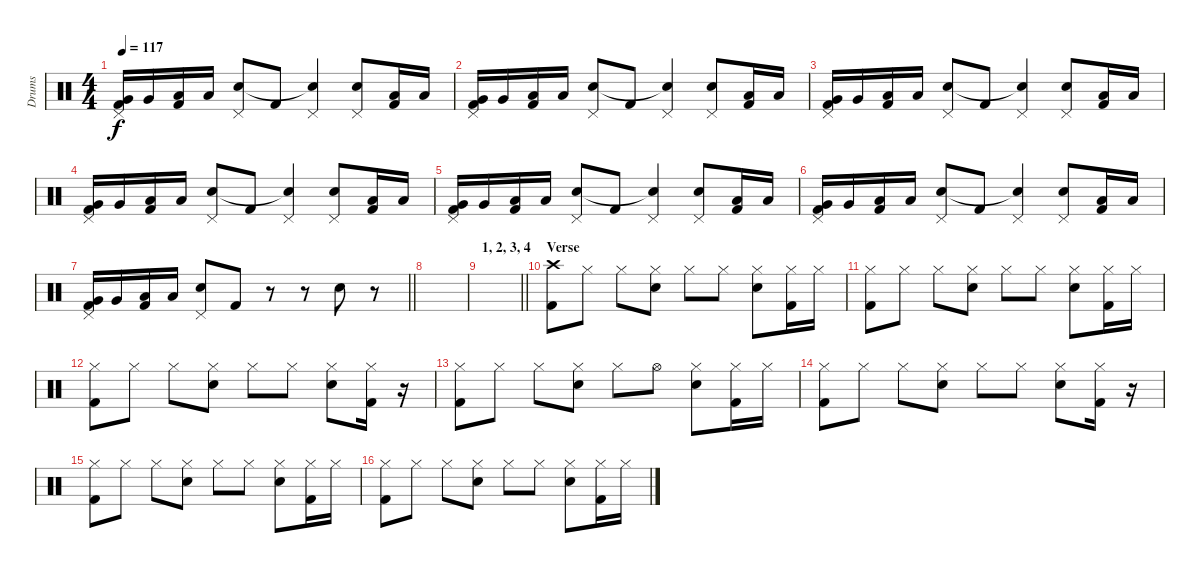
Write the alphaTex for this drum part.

\track ("Drums" "Drums") {instrument percussion}
\staff {score}
\articulation defaults
\ts (4 4)
\tempo 117
\clef neutral
\ks c
("Pedal Hi-Hat (hit)" "Very Low Tom (hit)" "Kick (hit) 2").16{dy f} "Very Low Tom (hit)".16 ("Low Floor Tom (hit)" "Kick (hit) 2").16 "Low Floor Tom (hit)".16 ("Pedal Hi-Hat (hit)" "Snare (hit) 2").8 "Kick (hit) 2".8 ("Pedal Hi-Hat (hit)" "Snare (hit)"{t}).4 ("Pedal Hi-Hat (hit)" "Snare (hit) 2").8 ("Low Tom (hit)" "Kick (hit) 2").16 "Low Tom (hit)".16 |
("Pedal Hi-Hat (hit)" "Very Low Tom (hit)" "Kick (hit) 2").16 "Very Low Tom (hit)".16 ("Low Floor Tom (hit)" "Kick (hit) 2").16 "Low Floor Tom (hit)".16 ("Pedal Hi-Hat (hit)" "Snare (hit) 2").8 "Kick (hit) 2".8 ("Pedal Hi-Hat (hit)" "Snare (hit)"{t}).4 ("Pedal Hi-Hat (hit)" "Snare (hit) 2").8 ("Low Tom (hit)" "Kick (hit) 2").16 "Low Tom (hit)".16 |
("Pedal Hi-Hat (hit)" "Very Low Tom (hit)" "Kick (hit) 2").16 "Very Low Tom (hit)".16 ("Low Floor Tom (hit)" "Kick (hit) 2").16 "Low Floor Tom (hit)".16 ("Pedal Hi-Hat (hit)" "Snare (hit) 2").8 "Kick (hit) 2".8 ("Pedal Hi-Hat (hit)" "Snare (hit)"{t}).4 ("Pedal Hi-Hat (hit)" "Snare (hit) 2").8 ("Low Tom (hit)" "Kick (hit) 2").16 "Low Tom (hit)".16 |
("Pedal Hi-Hat (hit)" "Very Low Tom (hit)" "Kick (hit) 2").16 "Very Low Tom (hit)".16 ("Low Floor Tom (hit)" "Kick (hit) 2").16 "Low Floor Tom (hit)".16 ("Pedal Hi-Hat (hit)" "Snare (hit) 2").8 "Kick (hit) 2".8 ("Pedal Hi-Hat (hit)" "Snare (hit)"{t}).4 ("Pedal Hi-Hat (hit)" "Snare (hit) 2").8 ("Low Tom (hit)" "Kick (hit) 2").16 "Low Tom (hit)".16 |
("Pedal Hi-Hat (hit)" "Very Low Tom (hit)" "Kick (hit) 2").16 "Very Low Tom (hit)".16 ("Low Floor Tom (hit)" "Kick (hit) 2").16 "Low Floor Tom (hit)".16 ("Pedal Hi-Hat (hit)" "Snare (hit) 2").8 "Kick (hit) 2".8 ("Pedal Hi-Hat (hit)" "Snare (hit)"{t}).4 ("Pedal Hi-Hat (hit)" "Snare (hit) 2").8 ("Low Tom (hit)" "Kick (hit) 2").16 "Low Tom (hit)".16 |
("Pedal Hi-Hat (hit)" "Very Low Tom (hit)" "Kick (hit) 2").16 "Very Low Tom (hit)".16 ("Low Floor Tom (hit)" "Kick (hit) 2").16 "Low Floor Tom (hit)".16 ("Pedal Hi-Hat (hit)" "Snare (hit) 2").8 "Kick (hit) 2".8 ("Pedal Hi-Hat (hit)" "Snare (hit)"{t}).4 ("Pedal Hi-Hat (hit)" "Snare (hit) 2").8 ("Low Tom (hit)" "Kick (hit) 2").16 "Low Tom (hit)".16 |
\barLineRight lightlight
("Pedal Hi-Hat (hit)" "Very Low Tom (hit)" "Kick (hit) 2").16 "Very Low Tom (hit)".16 ("Low Floor Tom (hit)" "Kick (hit) 2").16 "Low Floor Tom (hit)".16 ("Pedal Hi-Hat (hit)" "Snare (hit) 2").8 "Kick (hit) 2".8 r.8 r.8 "Snare (hit) 2".8 r.8 |
|
\section ("" "1, 2, 3, 4")
\barLineRight lightlight
|
\section ("" "Verse")
("Crash high (hit)" "Kick (hit) 2").8 "Hi-Hat (closed)".8 "Hi-Hat (closed)".8 ("Hi-Hat (closed)" "Snare (hit) 2").8 "Hi-Hat (closed)".8 "Hi-Hat (closed)".8 ("Hi-Hat (closed)" "Snare (hit) 2").8 ("Hi-Hat (closed)" "Kick (hit) 2").16 "Hi-Hat (closed)".16 |
("Hi-Hat (closed)" "Kick (hit) 2").8 "Hi-Hat (closed)".8 "Hi-Hat (closed)".8 ("Hi-Hat (closed)" "Snare (hit) 2").8 "Hi-Hat (closed)".8 "Hi-Hat (closed)".8 ("Hi-Hat (closed)" "Snare (hit) 2").8 ("Hi-Hat (closed)" "Kick (hit) 2").16 "Hi-Hat (closed)".16 |
("Hi-Hat (closed)" "Kick (hit) 2").8 "Hi-Hat (closed)".8 "Hi-Hat (closed)".8 ("Hi-Hat (closed)" "Snare (hit) 2").8 "Hi-Hat (closed)".8 "Hi-Hat (closed)".8 ("Hi-Hat (closed)" "Snare (hit) 2").8 ("Hi-Hat (closed)" "Kick (hit) 2").16 r.16 |
("Hi-Hat (closed)" "Kick (hit) 2").8 "Hi-Hat (closed)".8 "Hi-Hat (closed)".8 ("Hi-Hat (closed)" "Snare (hit) 2").8 "Hi-Hat (closed)".8 "Hi-Hat (open)".8 ("Hi-Hat (closed)" "Snare (hit) 2").8 ("Hi-Hat (closed)" "Kick (hit) 2").16 "Hi-Hat (closed)".16 |
("Hi-Hat (closed)" "Kick (hit) 2").8 "Hi-Hat (closed)".8 "Hi-Hat (closed)".8 ("Hi-Hat (closed)" "Snare (hit) 2").8 "Hi-Hat (closed)".8 "Hi-Hat (closed)".8 ("Hi-Hat (closed)" "Snare (hit) 2").8 ("Hi-Hat (closed)" "Kick (hit) 2").16 r.16 |
("Hi-Hat (closed)" "Kick (hit) 2").8 "Hi-Hat (closed)".8 "Hi-Hat (closed)".8 ("Hi-Hat (closed)" "Snare (hit) 2").8 "Hi-Hat (closed)".8 "Hi-Hat (closed)".8 ("Hi-Hat (closed)" "Snare (hit) 2").8 ("Hi-Hat (closed)" "Kick (hit) 2").16 "Hi-Hat (closed)".16 |
("Hi-Hat (closed)" "Kick (hit) 2").8 "Hi-Hat (closed)".8 "Hi-Hat (closed)".8 ("Hi-Hat (closed)" "Snare (hit) 2").8 "Hi-Hat (closed)".8 "Hi-Hat (closed)".8 ("Hi-Hat (closed)" "Snare (hit) 2").8 ("Hi-Hat (closed)" "Kick (hit) 2").16 "Hi-Hat (closed)".16
